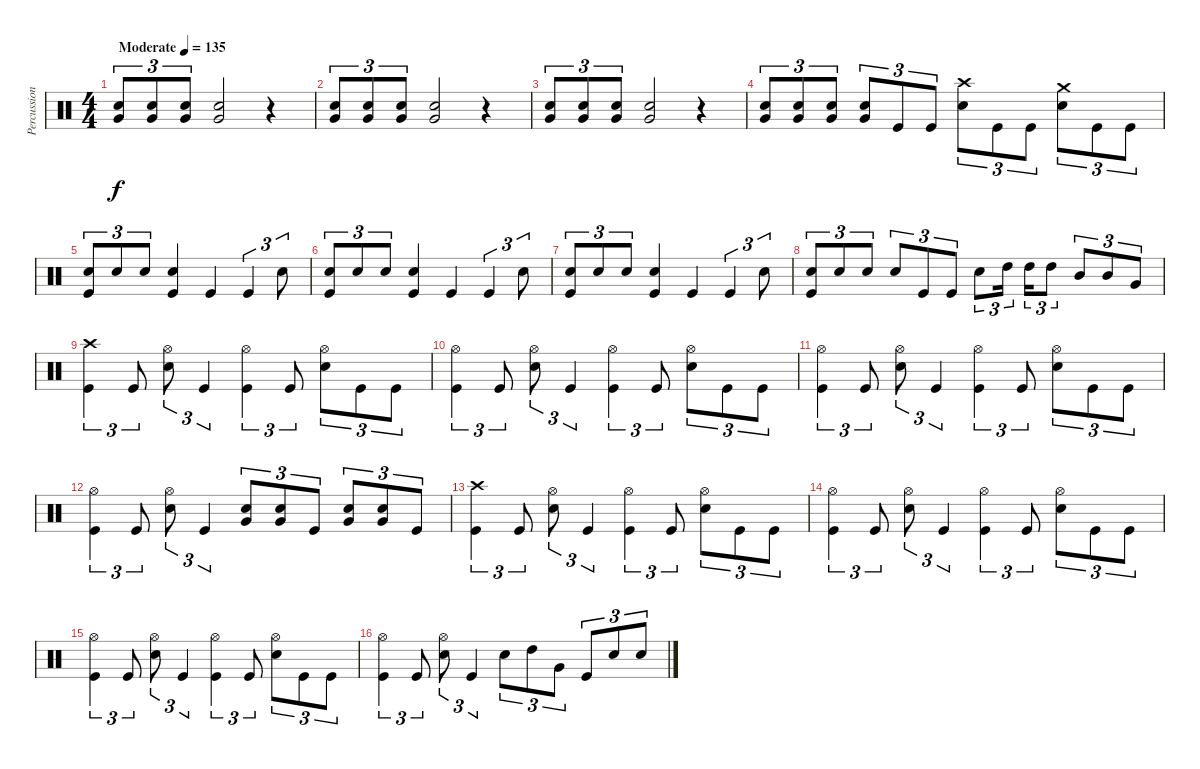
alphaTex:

\track ("Percussion" "Percussion") {instrument percussion}
\staff {score}
\articulation defaults
\ts (4 4)
\tempo (135 "Moderate")
\clef neutral
\ks c
("Snare (hit) 2" "Very Low Tom (hit)").8{tu (3 2) dy f} ("Snare (hit) 2" "Very Low Tom (hit)").8{tu (3 2)} ("Snare (hit) 2" "Very Low Tom (hit)").8{tu (3 2)} ("Snare (hit) 2" "Very Low Tom (hit)").2 r.4 |
("Snare (hit) 2" "Very Low Tom (hit)").8{tu (3 2)} ("Snare (hit) 2" "Very Low Tom (hit)").8{tu (3 2)} ("Snare (hit) 2" "Very Low Tom (hit)").8{tu (3 2)} ("Snare (hit) 2" "Very Low Tom (hit)").2 r.4 |
("Snare (hit) 2" "Very Low Tom (hit)").8{tu (3 2)} ("Snare (hit) 2" "Very Low Tom (hit)").8{tu (3 2)} ("Snare (hit) 2" "Very Low Tom (hit)").8{tu (3 2)} ("Snare (hit) 2" "Very Low Tom (hit)").2 r.4 |
("Snare (hit) 2" "Very Low Tom (hit)").8{tu (3 2)} ("Snare (hit) 2" "Very Low Tom (hit)").8{tu (3 2)} ("Snare (hit) 2" "Very Low Tom (hit)").8{tu (3 2)} ("Snare (hit) 2" "Very Low Tom (hit)").8{tu (3 2)} "Kick (hit)".8{tu (3 2)} "Kick (hit)".8{tu (3 2)} ("Crash high (hit)" "Snare (hit) 2").8{tu (3 2)} "Kick (hit)".8{tu (3 2)} "Kick (hit)".8{tu (3 2)} ("Crash medium (hit)" "Snare (hit) 2").8{tu (3 2)} "Kick (hit)".8{tu (3 2)} "Kick (hit)".8{tu (3 2)} |
("Snare (hit) 2" "Kick (hit)").8{tu (3 2)} "Snare (hit) 2".8{tu (3 2)} "Snare (hit) 2".8{tu (3 2)} ("Snare (hit) 2" "Kick (hit)").4 "Kick (hit)".4 "Kick (hit)".4{tu (3 2)} "Snare (hit) 2".8{tu (3 2)} |
("Snare (hit) 2" "Kick (hit)").8{tu (3 2)} "Snare (hit) 2".8{tu (3 2)} "Snare (hit) 2".8{tu (3 2)} ("Snare (hit) 2" "Kick (hit)").4 "Kick (hit)".4 "Kick (hit)".4{tu (3 2)} "Snare (hit) 2".8{tu (3 2)} |
("Snare (hit) 2" "Kick (hit)").8{tu (3 2)} "Snare (hit) 2".8{tu (3 2)} "Snare (hit) 2".8{tu (3 2)} ("Snare (hit) 2" "Kick (hit)").4 "Kick (hit)".4 "Kick (hit)".4{tu (3 2)} "Snare (hit) 2".8{tu (3 2)} |
("Snare (hit) 2" "Kick (hit)").8{tu (3 2)} "Snare (hit) 2".8{tu (3 2)} "Snare (hit) 2".8{tu (3 2)} "Snare (hit) 2".8{tu (3 2)} "Kick (hit)".8{tu (3 2)} "Kick (hit)".8{tu (3 2)} "Snare (hit) 2".8{tu (3 2)} "High Tom (hit)".16{tu (3 2) beam splitsecondary} "High Tom (hit)".16{tu (3 2)} "High Tom (hit)".8{tu (3 2)} "Mid Tom (hit)".8{tu (3 2)} "Mid Tom (hit)".8{tu (3 2)} "Very Low Tom (hit)".8{tu (3 2)} |
("Crash high (hit)" "Kick (hit)").4{tu (3 2)} "Kick (hit)".8{tu (3 2)} ("Hi-Hat (open)" "Snare (hit) 2").8{tu (3 2)} "Kick (hit)".4{tu (3 2)} ("Hi-Hat (open)" "Kick (hit)").4{tu (3 2)} "Kick (hit)".8{tu (3 2)} ("Hi-Hat (open)" "Snare (hit) 2").8{tu (3 2)} "Kick (hit)".8{tu (3 2)} "Kick (hit)".8{tu (3 2)} |
("Hi-Hat (open)" "Kick (hit)").4{tu (3 2)} "Kick (hit)".8{tu (3 2)} ("Hi-Hat (open)" "Snare (hit) 2").8{tu (3 2)} "Kick (hit)".4{tu (3 2)} ("Hi-Hat (open)" "Kick (hit)").4{tu (3 2)} "Kick (hit)".8{tu (3 2)} ("Hi-Hat (open)" "Snare (hit) 2").8{tu (3 2)} "Kick (hit)".8{tu (3 2)} "Kick (hit)".8{tu (3 2)} |
("Hi-Hat (open)" "Kick (hit)").4{tu (3 2)} "Kick (hit)".8{tu (3 2)} ("Hi-Hat (open)" "Snare (hit) 2").8{tu (3 2)} "Kick (hit)".4{tu (3 2)} ("Hi-Hat (open)" "Kick (hit)").4{tu (3 2)} "Kick (hit)".8{tu (3 2)} ("Hi-Hat (open)" "Snare (hit) 2").8{tu (3 2)} "Kick (hit)".8{tu (3 2)} "Kick (hit)".8{tu (3 2)} |
("Hi-Hat (open)" "Kick (hit)").4{tu (3 2)} "Kick (hit)".8{tu (3 2)} ("Hi-Hat (open)" "Snare (hit) 2").8{tu (3 2)} "Kick (hit)".4{tu (3 2)} ("Snare (hit) 2" "Very Low Tom (hit)").8{tu (3 2)} ("Snare (hit) 2" "Very Low Tom (hit)").8{tu (3 2)} "Kick (hit)".8{tu (3 2)} ("Snare (hit) 2" "Very Low Tom (hit)").8{tu (3 2)} ("Snare (hit) 2" "Very Low Tom (hit)").8{tu (3 2)} "Kick (hit)".8{tu (3 2)} |
("Crash high (hit)" "Kick (hit)").4{tu (3 2)} "Kick (hit)".8{tu (3 2)} ("Hi-Hat (open)" "Snare (hit) 2").8{tu (3 2)} "Kick (hit)".4{tu (3 2)} ("Hi-Hat (open)" "Kick (hit)").4{tu (3 2)} "Kick (hit)".8{tu (3 2)} ("Hi-Hat (open)" "Snare (hit) 2").8{tu (3 2)} "Kick (hit)".8{tu (3 2)} "Kick (hit)".8{tu (3 2)} |
("Hi-Hat (open)" "Kick (hit)").4{tu (3 2)} "Kick (hit)".8{tu (3 2)} ("Hi-Hat (open)" "Snare (hit) 2").8{tu (3 2)} "Kick (hit)".4{tu (3 2)} ("Hi-Hat (open)" "Kick (hit)").4{tu (3 2)} "Kick (hit)".8{tu (3 2)} ("Hi-Hat (open)" "Snare (hit) 2").8{tu (3 2)} "Kick (hit)".8{tu (3 2)} "Kick (hit)".8{tu (3 2)} |
("Hi-Hat (open)" "Kick (hit)").4{tu (3 2)} "Kick (hit)".8{tu (3 2)} ("Hi-Hat (open)" "Snare (hit) 2").8{tu (3 2)} "Kick (hit)".4{tu (3 2)} ("Hi-Hat (open)" "Kick (hit)").4{tu (3 2)} "Kick (hit)".8{tu (3 2)} ("Hi-Hat (open)" "Snare (hit) 2").8{tu (3 2)} "Kick (hit)".8{tu (3 2)} "Kick (hit)".8{tu (3 2)} |
("Hi-Hat (open)" "Kick (hit)").4{tu (3 2)} "Kick (hit)".8{tu (3 2)} ("Hi-Hat (open)" "Snare (hit) 2").8{tu (3 2)} "Kick (hit)".4{tu (3 2)} "Snare (hit) 2".8{tu (3 2)} "High Tom (hit)".8{tu (3 2)} "Very Low Tom (hit)".8{tu (3 2)} "Kick (hit)".8{tu (3 2)} "Snare (hit) 2".8{tu (3 2)} "Snare (hit) 2".8{tu (3 2)}
